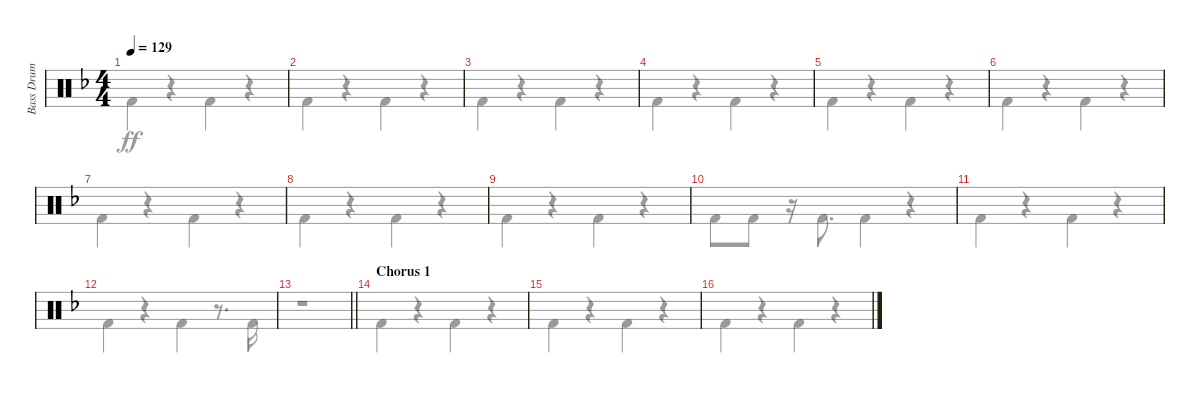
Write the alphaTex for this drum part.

\track ("Bass Drum" "Bass Drum") {instrument percussion}
\staff {score}
\articulation defaults
\voice
\ts (4 4)
\tempo 129
\clef neutral
\ks dminor
|
|
|
|
|
|
|
|
|
|
|
|
\barLineRight lightlight
|
\section ("" "Chorus 1")
|
|
\voice
\clef neutral
\ks dminor "Kick (hit) 2".4{dy ff}
r.4 "Kick (hit) 2".4 r.4 |
"Kick (hit) 2".4 r.4 "Kick (hit) 2".4 r.4 |
"Kick (hit) 2".4 r.4 "Kick (hit) 2".4 r.4 |
"Kick (hit) 2".4 r.4 "Kick (hit) 2".4 r.4 |
"Kick (hit) 2".4 r.4 "Kick (hit) 2".4 r.4 |
"Kick (hit) 2".4 r.4 "Kick (hit) 2".4 r.4 |
"Kick (hit) 2".4 r.4 "Kick (hit) 2".4 r.4 |
"Kick (hit) 2".4 r.4 "Kick (hit) 2".4 r.4 |
"Kick (hit) 2".4 r.4 "Kick (hit) 2".4 r.4 |
"Kick (hit) 2".8 "Kick (hit) 2".8 r.16 "Kick (hit) 2".8{d} "Kick (hit) 2".4 r.4 |
"Kick (hit) 2".4 r.4 "Kick (hit) 2".4 r.4 |
"Kick (hit) 2".4 r.4 "Kick (hit) 2".4 r.8{d} "Kick (hit) 2".16 |
\barLineRight lightlight
r.1 |
"Kick (hit) 2".4 r.4 "Kick (hit) 2".4 r.4 |
"Kick (hit) 2".4 r.4 "Kick (hit) 2".4 r.4 |
"Kick (hit) 2".4 r.4 "Kick (hit) 2".4 r.4
